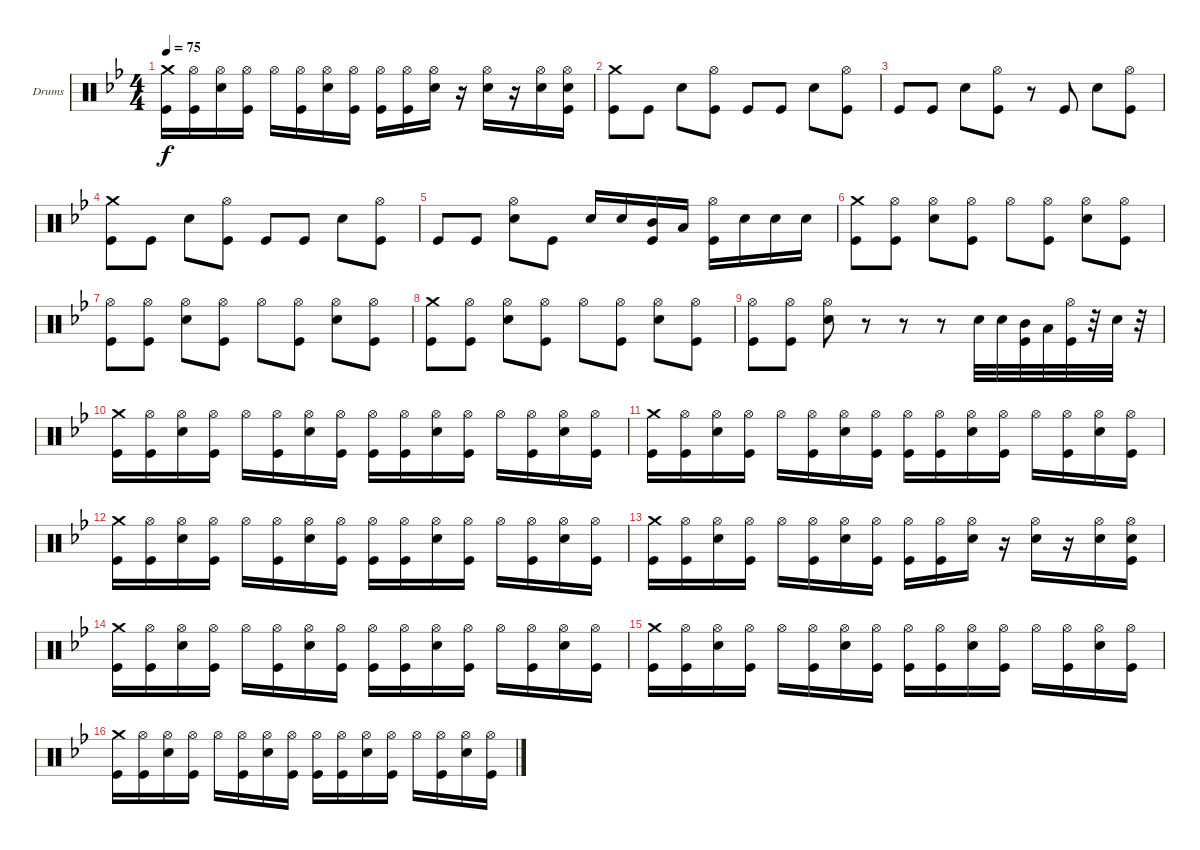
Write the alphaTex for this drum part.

\bracketExtendMode groupsimilarinstruments
\firstSystemTrackNameOrientation horizontal
\otherSystemsTrackNameOrientation horizontal
\track ("Drumkit" "Drums") {instrument percussion}
\staff {score}
\articulation defaults
\ts (4 4)
\tempo 75
\clef neutral
\ks bb
("Crash medium (hit)" "Kick (hit)").16{dy f} ("Hi-Hat (open)" "Kick (hit)").16 ("Hi-Hat (open)" "Snare (hit) 2").16 ("Hi-Hat (open)" "Kick (hit)").16 "Hi-Hat (open)".16 ("Hi-Hat (open)" "Kick (hit)").16 ("Hi-Hat (open)" "Snare (hit) 2").16 ("Hi-Hat (open)" "Kick (hit)").16 ("Hi-Hat (open)" "Kick (hit)").16 ("Hi-Hat (open)" "Kick (hit)").16 ("Hi-Hat (open)" "Snare (hit) 2").16 r.16 ("Hi-Hat (open)" "Snare (hit) 2").16 r.16 ("Hi-Hat (open)" "Snare (hit) 2").16 ("Hi-Hat (open)" "Snare (hit) 2" "Kick (hit)").16 |
("Crash medium (hit)" "Kick (hit)").8 "Kick (hit)".8 "Snare (hit) 2".8 ("Hi-Hat (open)" "Kick (hit)").8 "Kick (hit)".8 "Kick (hit)".8 "Snare (hit) 2".8 ("Hi-Hat (open)" "Kick (hit)").8 |
"Kick (hit)".8 "Kick (hit)".8 "Snare (hit) 2".8 ("Hi-Hat (open)" "Kick (hit)").8 r.8 "Kick (hit)".8 "Snare (hit) 2".8 ("Hi-Hat (open)" "Kick (hit)").8 |
("Crash medium (hit)" "Kick (hit)").8 "Kick (hit)".8 "Snare (hit) 2".8 ("Hi-Hat (open)" "Kick (hit)").8 "Kick (hit)".8 "Kick (hit)".8 "Snare (hit) 2".8 ("Hi-Hat (open)" "Kick (hit)").8 |
"Kick (hit)".8 "Kick (hit)".8 ("Hi-Hat (open)" "Snare (hit) 2").8 "Kick (hit)".8 "Snare (hit) 2".16 "Snare (hit) 2".16 ("Mid Tom (hit)" "Kick (hit)").16 "Low Tom (hit)".16 ("Hi-Hat (open)" "Kick (hit)").16 "Snare (hit) 2".16 "Snare (hit) 2".16 "Snare (hit) 2".16 |
("Crash medium (hit)" "Kick (hit)").8 ("Hi-Hat (open)" "Kick (hit)").8 ("Hi-Hat (open)" "Snare (hit) 2").8 ("Hi-Hat (open)" "Kick (hit)").8 "Hi-Hat (open)".8 ("Hi-Hat (open)" "Kick (hit)").8 ("Hi-Hat (open)" "Snare (hit) 2").8 ("Hi-Hat (open)" "Kick (hit)").8 |
("Hi-Hat (open)" "Kick (hit)").8 ("Hi-Hat (open)" "Kick (hit)").8 ("Hi-Hat (open)" "Snare (hit) 2").8 ("Hi-Hat (open)" "Kick (hit)").8 "Hi-Hat (open)".8 ("Hi-Hat (open)" "Kick (hit)").8 ("Hi-Hat (open)" "Snare (hit) 2").8 ("Hi-Hat (open)" "Kick (hit)").8 |
("Crash medium (hit)" "Kick (hit)").8 ("Hi-Hat (open)" "Kick (hit)").8 ("Hi-Hat (open)" "Snare (hit) 2").8 ("Hi-Hat (open)" "Kick (hit)").8 "Hi-Hat (open)".8 ("Hi-Hat (open)" "Kick (hit)").8 ("Hi-Hat (open)" "Snare (hit) 2").8 ("Hi-Hat (open)" "Kick (hit)").8 |
("Hi-Hat (open)" "Kick (hit)").8 ("Hi-Hat (open)" "Kick (hit)").8 ("Hi-Hat (open)" "Snare (hit) 2").8 r.8 r.8 r.8 "Snare (hit) 2".32 "Snare (hit) 2".32 ("Mid Tom (hit)" "Kick (hit)").32 "Low Tom (hit)".32 ("Hi-Hat (open)" "Kick (hit)").32 r.32 "Snare (hit) 2".32 r.32 |
("Crash medium (hit)" "Kick (hit)").16 ("Hi-Hat (open)" "Kick (hit)").16 ("Hi-Hat (open)" "Snare (hit) 2").16 ("Hi-Hat (open)" "Kick (hit)").16 "Hi-Hat (open)".16 ("Hi-Hat (open)" "Kick (hit)").16 ("Hi-Hat (open)" "Snare (hit) 2").16 ("Hi-Hat (open)" "Kick (hit)").16 ("Hi-Hat (open)" "Kick (hit)").16 ("Hi-Hat (open)" "Kick (hit)").16 ("Hi-Hat (open)" "Snare (hit) 2").16 ("Hi-Hat (open)" "Kick (hit)").16 "Hi-Hat (open)".16 ("Hi-Hat (open)" "Kick (hit)").16 ("Hi-Hat (open)" "Snare (hit) 2").16 ("Hi-Hat (open)" "Kick (hit)").16 |
("Crash medium (hit)" "Kick (hit)").16 ("Hi-Hat (open)" "Kick (hit)").16 ("Hi-Hat (open)" "Snare (hit) 2").16 ("Hi-Hat (open)" "Kick (hit)").16 "Hi-Hat (open)".16 ("Hi-Hat (open)" "Kick (hit)").16 ("Hi-Hat (open)" "Snare (hit) 2").16 ("Hi-Hat (open)" "Kick (hit)").16 ("Hi-Hat (open)" "Kick (hit)").16 ("Hi-Hat (open)" "Kick (hit)").16 ("Hi-Hat (open)" "Snare (hit) 2").16 ("Hi-Hat (open)" "Kick (hit)").16 "Hi-Hat (open)".16 ("Hi-Hat (open)" "Kick (hit)").16 ("Hi-Hat (open)" "Snare (hit) 2").16 ("Hi-Hat (open)" "Kick (hit)").16 |
("Crash medium (hit)" "Kick (hit)").16 ("Hi-Hat (open)" "Kick (hit)").16 ("Hi-Hat (open)" "Snare (hit) 2").16 ("Hi-Hat (open)" "Kick (hit)").16 "Hi-Hat (open)".16 ("Hi-Hat (open)" "Kick (hit)").16 ("Hi-Hat (open)" "Snare (hit) 2").16 ("Hi-Hat (open)" "Kick (hit)").16 ("Hi-Hat (open)" "Kick (hit)").16 ("Hi-Hat (open)" "Kick (hit)").16 ("Hi-Hat (open)" "Snare (hit) 2").16 ("Hi-Hat (open)" "Kick (hit)").16 "Hi-Hat (open)".16 ("Hi-Hat (open)" "Kick (hit)").16 ("Hi-Hat (open)" "Snare (hit) 2").16 ("Hi-Hat (open)" "Kick (hit)").16 |
("Crash medium (hit)" "Kick (hit)").16 ("Hi-Hat (open)" "Kick (hit)").16 ("Hi-Hat (open)" "Snare (hit) 2").16 ("Hi-Hat (open)" "Kick (hit)").16 "Hi-Hat (open)".16 ("Hi-Hat (open)" "Kick (hit)").16 ("Hi-Hat (open)" "Snare (hit) 2").16 ("Hi-Hat (open)" "Kick (hit)").16 ("Hi-Hat (open)" "Kick (hit)").16 ("Hi-Hat (open)" "Kick (hit)").16 ("Hi-Hat (open)" "Snare (hit) 2").16 r.16 ("Hi-Hat (open)" "Snare (hit) 2").16 r.16 ("Hi-Hat (open)" "Snare (hit) 2").16 ("Hi-Hat (open)" "Snare (hit) 2" "Kick (hit)").16 |
("Crash medium (hit)" "Kick (hit)").16 ("Hi-Hat (open)" "Kick (hit)").16 ("Hi-Hat (open)" "Snare (hit) 2").16 ("Hi-Hat (open)" "Kick (hit)").16 "Hi-Hat (open)".16 ("Hi-Hat (open)" "Kick (hit)").16 ("Hi-Hat (open)" "Snare (hit) 2").16 ("Hi-Hat (open)" "Kick (hit)").16 ("Hi-Hat (open)" "Kick (hit)").16 ("Hi-Hat (open)" "Kick (hit)").16 ("Hi-Hat (open)" "Snare (hit) 2").16 ("Hi-Hat (open)" "Kick (hit)").16 "Hi-Hat (open)".16 ("Hi-Hat (open)" "Kick (hit)").16 ("Hi-Hat (open)" "Snare (hit) 2").16 ("Hi-Hat (open)" "Kick (hit)").16 |
("Crash medium (hit)" "Kick (hit)").16 ("Hi-Hat (open)" "Kick (hit)").16 ("Hi-Hat (open)" "Snare (hit) 2").16 ("Hi-Hat (open)" "Kick (hit)").16 "Hi-Hat (open)".16 ("Hi-Hat (open)" "Kick (hit)").16 ("Hi-Hat (open)" "Snare (hit) 2").16 ("Hi-Hat (open)" "Kick (hit)").16 ("Hi-Hat (open)" "Kick (hit)").16 ("Hi-Hat (open)" "Kick (hit)").16 ("Hi-Hat (open)" "Snare (hit) 2").16 ("Hi-Hat (open)" "Kick (hit)").16 "Hi-Hat (open)".16 ("Hi-Hat (open)" "Kick (hit)").16 ("Hi-Hat (open)" "Snare (hit) 2").16 ("Hi-Hat (open)" "Kick (hit)").16 |
("Crash medium (hit)" "Kick (hit)").16 ("Hi-Hat (open)" "Kick (hit)").16 ("Hi-Hat (open)" "Snare (hit) 2").16 ("Hi-Hat (open)" "Kick (hit)").16 "Hi-Hat (open)".16 ("Hi-Hat (open)" "Kick (hit)").16 ("Hi-Hat (open)" "Snare (hit) 2").16 ("Hi-Hat (open)" "Kick (hit)").16 ("Hi-Hat (open)" "Kick (hit)").16 ("Hi-Hat (open)" "Kick (hit)").16 ("Hi-Hat (open)" "Snare (hit) 2").16 ("Hi-Hat (open)" "Kick (hit)").16 "Hi-Hat (open)".16 ("Hi-Hat (open)" "Kick (hit)").16 ("Hi-Hat (open)" "Snare (hit) 2").16 ("Hi-Hat (open)" "Kick (hit)").16
